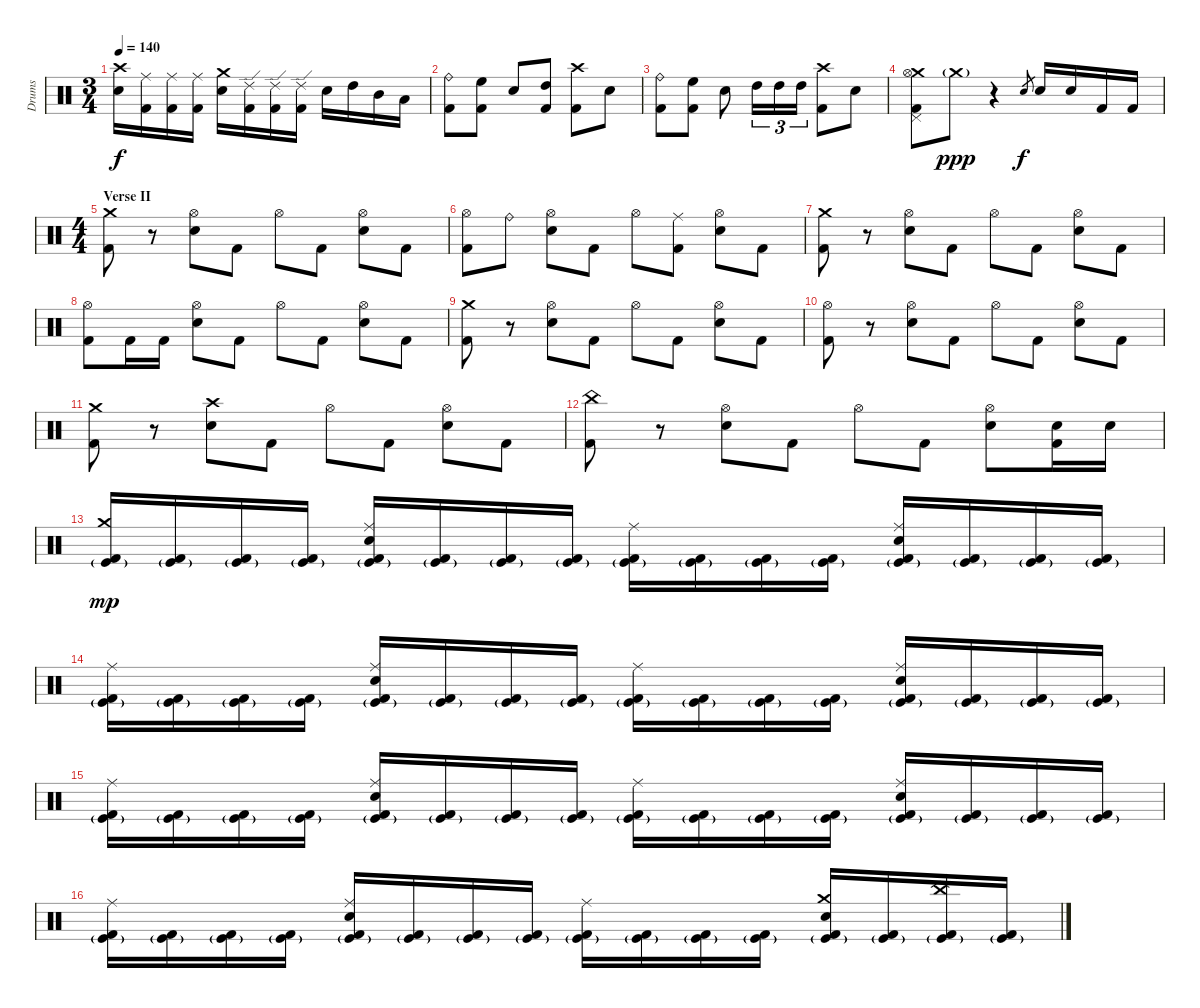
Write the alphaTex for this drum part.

\track ("Drums" "Drums") {instrument percussion}
\staff {score}
\articulation defaults
\ts (3 4)
\tempo 140
\clef neutral
\ks c
("Crash high (hit)" "Electric Snare (hit)").16{dy f} ("Ride (middle)" "Kick (hit) 2").16 ("Ride (middle)" "Kick (hit) 2").16 ("Ride (middle)" "Kick (hit) 2").16 ("Crash medium (hit)" "Electric Snare (hit)").16 ("Ride (edge) 2" "Kick (hit) 2").16 ("Ride (edge) 2" "Kick (hit) 2").16 ("Ride (edge) 2" "Kick (hit) 2").16 "Electric Snare (hit)".16 "High Tom (hit)".16 "Mid Tom (hit)".16 "Low Tom (hit)".16 |
("Ride (bell)" "Kick (hit) 2").8 ("High Floor Tom (hit)" "Kick (hit) 2").8 "Electric Snare (hit)".8 ("High Tom (hit)" "Kick (hit) 2").8 ("Crash high (hit)" "Kick (hit) 2").8 "Electric Snare (hit)".8 |
("Ride (bell)" "Kick (hit) 2").8 ("High Floor Tom (hit)" "Kick (hit) 2").8 "Electric Snare (hit)".8 "High Tom (hit)".16{tu (3 2)} "High Tom (hit)".16{tu (3 2)} "High Tom (hit)".16{tu (3 2)} ("Crash high (hit)" "Kick (hit) 2").8 "Electric Snare (hit)".8 |
("Crash medium (hit)" "Hi-Hat (open)" "Pedal Hi-Hat (hit)" "Kick (hit) 2").8 "Crash medium (hit)"{g}.8{dy ppp} r.4 "Electric Snare (hit)".8{gr dy f} "Electric Snare (hit)".16 "Electric Snare (hit)".16 "Kick (hit) 2".16 "Kick (hit) 2".16 |
\ts (4 4)
\section ("" "Verse II")
("Crash medium (hit)" "Kick (hit) 2").8 r.8 ("Hi-Hat (open)" "Electric Snare (hit)").8 "Kick (hit) 2".8 "Hi-Hat (open)".8 "Kick (hit) 2".8 ("Hi-Hat (open)" "Electric Snare (hit)").8 "Kick (hit) 2".8 |
("Hi-Hat (open)" "Kick (hit) 2").8 "Ride (bell)".8 ("Hi-Hat (open)" "Electric Snare (hit)").8 "Kick (hit) 2".8 "Hi-Hat (open)".8 ("Ride (middle)" "Kick (hit) 2").8 ("Hi-Hat (open)" "Electric Snare (hit)").8 "Kick (hit) 2".8 |
("Crash medium (hit)" "Kick (hit) 2").8 r.8 ("Hi-Hat (open)" "Electric Snare (hit)").8 "Kick (hit) 2".8 "Hi-Hat (open)".8 "Kick (hit) 2".8 ("Hi-Hat (open)" "Electric Snare (hit)").8 "Kick (hit) 2".8 |
("Hi-Hat (open)" "Kick (hit) 2").8 "Kick (hit) 2".16 "Kick (hit) 2".16 ("Hi-Hat (open)" "Electric Snare (hit)").8 "Kick (hit) 2".8 "Hi-Hat (open)".8 "Kick (hit) 2".8 ("Hi-Hat (open)" "Electric Snare (hit)").8 "Kick (hit) 2".8 |
("Crash medium (hit)" "Kick (hit) 2").8 r.8 ("Hi-Hat (open)" "Electric Snare (hit)").8 "Kick (hit) 2".8 "Hi-Hat (open)".8 "Kick (hit) 2".8 ("Hi-Hat (open)" "Electric Snare (hit)").8 "Kick (hit) 2".8 |
("Hi-Hat (open)" "Kick (hit) 2").8 r.8 ("Hi-Hat (open)" "Electric Snare (hit)").8 "Kick (hit) 2".8 "Hi-Hat (open)".8 "Kick (hit) 2".8 ("Hi-Hat (open)" "Electric Snare (hit)").8 "Kick (hit) 2".8 |
("Crash medium (hit)" "Kick (hit) 2").8 r.8 ("Crash high (hit)" "Electric Snare (hit)").8 "Kick (hit) 2".8 "Hi-Hat (open)".8 "Kick (hit) 2".8 ("Hi-Hat (open)" "Electric Snare (hit)").8 "Kick (hit) 2".8 |
("China (hit)" "Kick (hit) 2").8 r.8 ("Hi-Hat (open)" "Electric Snare (hit)").8 "Kick (hit) 2".8 "Hi-Hat (open)".8 "Kick (hit) 2".8 ("Hi-Hat (open)" "Electric Snare (hit)").8 ("Electric Snare (hit)" "Kick (hit) 2").16 "Electric Snare (hit)".16 |
("Crash medium (hit)" "Kick (hit) 2" "Kick (hit)"{g}).16{dy mp} ("Kick (hit) 2" "Kick (hit)"{g}).16 ("Kick (hit) 2" "Kick (hit)"{g}).16 ("Kick (hit) 2" "Kick (hit)"{g}).16 ("Ride (middle)" "Electric Snare (hit)" "Kick (hit) 2" "Kick (hit)"{g}).16 ("Kick (hit) 2" "Kick (hit)"{g}).16 ("Kick (hit) 2" "Kick (hit)"{g}).16 ("Kick (hit) 2" "Kick (hit)"{g}).16 ("Ride (middle)" "Kick (hit) 2" "Kick (hit)"{g}).16 ("Kick (hit) 2" "Kick (hit)"{g}).16 ("Kick (hit) 2" "Kick (hit)"{g}).16 ("Kick (hit) 2" "Kick (hit)"{g}).16 ("Ride (middle)" "Electric Snare (hit)" "Kick (hit) 2" "Kick (hit)"{g}).16 ("Kick (hit) 2" "Kick (hit)"{g}).16 ("Kick (hit) 2" "Kick (hit)"{g}).16 ("Kick (hit) 2" "Kick (hit)"{g}).16 |
("Ride (middle)" "Kick (hit) 2" "Kick (hit)"{g}).16 ("Kick (hit) 2" "Kick (hit)"{g}).16 ("Kick (hit) 2" "Kick (hit)"{g}).16 ("Kick (hit) 2" "Kick (hit)"{g}).16 ("Ride (middle)" "Electric Snare (hit)" "Kick (hit) 2" "Kick (hit)"{g}).16 ("Kick (hit) 2" "Kick (hit)"{g}).16 ("Kick (hit) 2" "Kick (hit)"{g}).16 ("Kick (hit) 2" "Kick (hit)"{g}).16 ("Ride (middle)" "Kick (hit) 2" "Kick (hit)"{g}).16 ("Kick (hit) 2" "Kick (hit)"{g}).16 ("Kick (hit) 2" "Kick (hit)"{g}).16 ("Kick (hit) 2" "Kick (hit)"{g}).16 ("Ride (middle)" "Electric Snare (hit)" "Kick (hit) 2" "Kick (hit)"{g}).16 ("Kick (hit) 2" "Kick (hit)"{g}).16 ("Kick (hit) 2" "Kick (hit)"{g}).16 ("Kick (hit) 2" "Kick (hit)"{g}).16 |
("Ride (middle)" "Kick (hit) 2" "Kick (hit)"{g}).16 ("Kick (hit) 2" "Kick (hit)"{g}).16 ("Kick (hit) 2" "Kick (hit)"{g}).16 ("Kick (hit) 2" "Kick (hit)"{g}).16 ("Ride (middle)" "Electric Snare (hit)" "Kick (hit) 2" "Kick (hit)"{g}).16 ("Kick (hit) 2" "Kick (hit)"{g}).16 ("Kick (hit) 2" "Kick (hit)"{g}).16 ("Kick (hit) 2" "Kick (hit)"{g}).16 ("Ride (middle)" "Kick (hit) 2" "Kick (hit)"{g}).16 ("Kick (hit) 2" "Kick (hit)"{g}).16 ("Kick (hit) 2" "Kick (hit)"{g}).16 ("Kick (hit) 2" "Kick (hit)"{g}).16 ("Ride (middle)" "Electric Snare (hit)" "Kick (hit) 2" "Kick (hit)"{g}).16 ("Kick (hit) 2" "Kick (hit)"{g}).16 ("Kick (hit) 2" "Kick (hit)"{g}).16 ("Kick (hit) 2" "Kick (hit)"{g}).16 |
("Ride (middle)" "Kick (hit) 2" "Kick (hit)"{g}).16 ("Kick (hit) 2" "Kick (hit)"{g}).16 ("Kick (hit) 2" "Kick (hit)"{g}).16 ("Kick (hit) 2" "Kick (hit)"{g}).16 ("Ride (middle)" "Electric Snare (hit)" "Kick (hit) 2" "Kick (hit)"{g}).16 ("Kick (hit) 2" "Kick (hit)"{g}).16 ("Kick (hit) 2" "Kick (hit)"{g}).16 ("Kick (hit) 2" "Kick (hit)"{g}).16 ("Ride (middle)" "Kick (hit) 2" "Kick (hit)"{g}).16 ("Kick (hit) 2" "Kick (hit)"{g}).16 ("Kick (hit) 2" "Kick (hit)"{g}).16 ("Kick (hit) 2" "Kick (hit)"{g}).16 ("Crash medium (hit)" "Electric Snare (hit)" "Kick (hit) 2" "Kick (hit)"{g}).16 ("Kick (hit) 2" "Kick (hit)"{g}).16 ("China (hit)" "Kick (hit) 2" "Kick (hit)"{g}).16 ("Kick (hit) 2" "Kick (hit)"{g}).16
